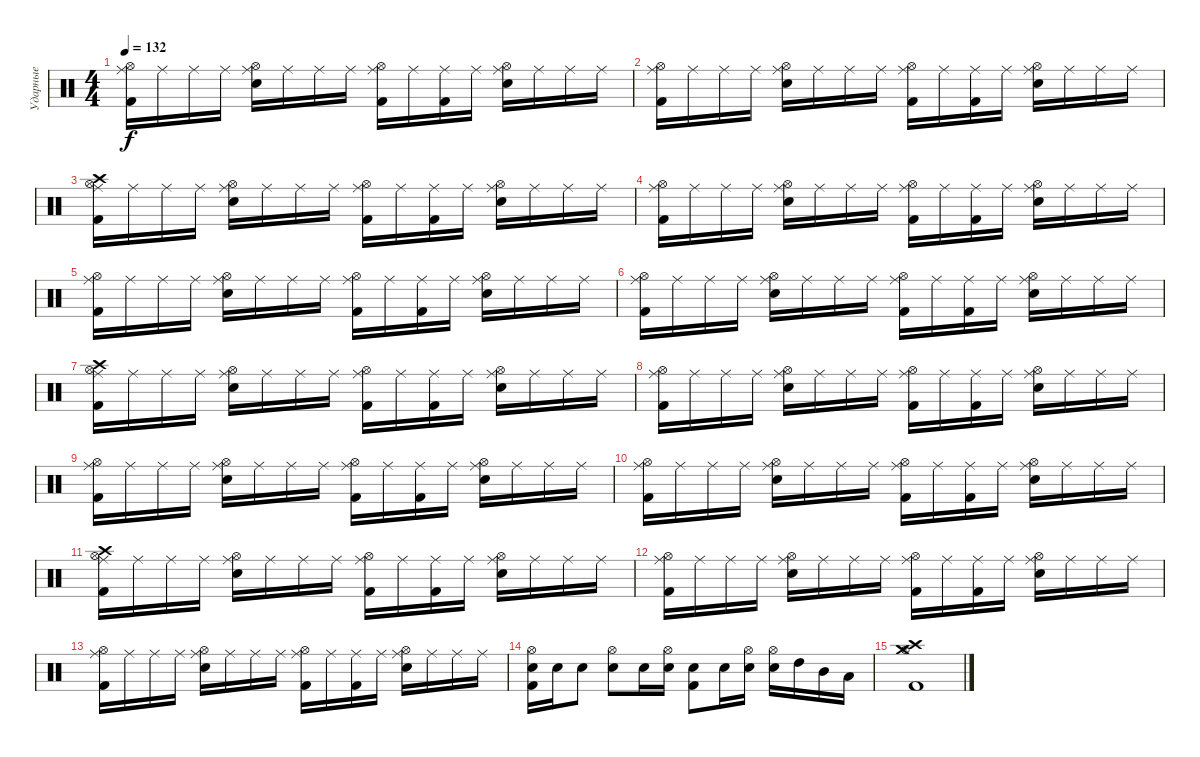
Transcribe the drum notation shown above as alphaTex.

\track ("Ударные" "Ударные") {instrument percussion}
\staff {score}
\articulation defaults
\ts (4 4)
\tempo 132
\clef neutral
\ks c
("Hi-Hat (open)" "Ride (middle)" "Kick (hit) 2").16{dy f} "Ride (middle)".16 "Ride (middle)".16 "Ride (middle)".16 ("Hi-Hat (open)" "Ride (middle)" "Snare (hit) 2").16 "Ride (middle)".16 "Ride (middle)".16 "Ride (middle)".16 ("Hi-Hat (open)" "Ride (middle)" "Kick (hit) 2").16 "Ride (middle)".16 ("Ride (middle)" "Kick (hit) 2").16 "Ride (middle)".16 ("Hi-Hat (open)" "Ride (middle)" "Snare (hit) 2").16 "Ride (middle)".16 "Ride (middle)".16 "Ride (middle)".16 |
("Hi-Hat (open)" "Ride (middle)" "Kick (hit) 2").16 "Ride (middle)".16 "Ride (middle)".16 "Ride (middle)".16 ("Hi-Hat (open)" "Ride (middle)" "Snare (hit) 2").16 "Ride (middle)".16 "Ride (middle)".16 "Ride (middle)".16 ("Hi-Hat (open)" "Ride (middle)" "Kick (hit) 2").16 "Ride (middle)".16 ("Ride (middle)" "Kick (hit) 2").16 "Ride (middle)".16 ("Hi-Hat (open)" "Ride (middle)" "Snare (hit) 2").16 "Ride (middle)".16 "Ride (middle)".16 "Ride (middle)".16 |
("Crash high (hit)" "Hi-Hat (open)" "Ride (middle)" "Kick (hit) 2").16 "Ride (middle)".16 "Ride (middle)".16 "Ride (middle)".16 ("Hi-Hat (open)" "Ride (middle)" "Snare (hit) 2").16 "Ride (middle)".16 "Ride (middle)".16 "Ride (middle)".16 ("Hi-Hat (open)" "Ride (middle)" "Kick (hit) 2").16 "Ride (middle)".16 ("Ride (middle)" "Kick (hit) 2").16 "Ride (middle)".16 ("Hi-Hat (open)" "Ride (middle)" "Snare (hit) 2").16 "Ride (middle)".16 "Ride (middle)".16 "Ride (middle)".16 |
("Hi-Hat (open)" "Ride (middle)" "Kick (hit) 2").16 "Ride (middle)".16 "Ride (middle)".16 "Ride (middle)".16 ("Hi-Hat (open)" "Ride (middle)" "Snare (hit) 2").16 "Ride (middle)".16 "Ride (middle)".16 "Ride (middle)".16 ("Hi-Hat (open)" "Ride (middle)" "Kick (hit) 2").16 "Ride (middle)".16 ("Ride (middle)" "Kick (hit) 2").16 "Ride (middle)".16 ("Hi-Hat (open)" "Ride (middle)" "Snare (hit) 2").16 "Ride (middle)".16 "Ride (middle)".16 "Ride (middle)".16 |
("Hi-Hat (open)" "Ride (middle)" "Kick (hit) 2").16 "Ride (middle)".16 "Ride (middle)".16 "Ride (middle)".16 ("Hi-Hat (open)" "Ride (middle)" "Snare (hit) 2").16 "Ride (middle)".16 "Ride (middle)".16 "Ride (middle)".16 ("Hi-Hat (open)" "Ride (middle)" "Kick (hit) 2").16 "Ride (middle)".16 ("Ride (middle)" "Kick (hit) 2").16 "Ride (middle)".16 ("Hi-Hat (open)" "Ride (middle)" "Snare (hit) 2").16 "Ride (middle)".16 "Ride (middle)".16 "Ride (middle)".16 |
("Hi-Hat (open)" "Ride (middle)" "Kick (hit) 2").16 "Ride (middle)".16 "Ride (middle)".16 "Ride (middle)".16 ("Hi-Hat (open)" "Ride (middle)" "Snare (hit) 2").16 "Ride (middle)".16 "Ride (middle)".16 "Ride (middle)".16 ("Hi-Hat (open)" "Ride (middle)" "Kick (hit) 2").16 "Ride (middle)".16 ("Ride (middle)" "Kick (hit) 2").16 "Ride (middle)".16 ("Hi-Hat (open)" "Ride (middle)" "Snare (hit) 2").16 "Ride (middle)".16 "Ride (middle)".16 "Ride (middle)".16 |
("Crash high (hit)" "Hi-Hat (open)" "Ride (middle)" "Kick (hit) 2").16 "Ride (middle)".16 "Ride (middle)".16 "Ride (middle)".16 ("Hi-Hat (open)" "Ride (middle)" "Snare (hit) 2").16 "Ride (middle)".16 "Ride (middle)".16 "Ride (middle)".16 ("Hi-Hat (open)" "Ride (middle)" "Kick (hit) 2").16 "Ride (middle)".16 ("Ride (middle)" "Kick (hit) 2").16 "Ride (middle)".16 ("Hi-Hat (open)" "Ride (middle)" "Snare (hit) 2").16 "Ride (middle)".16 "Ride (middle)".16 "Ride (middle)".16 |
("Hi-Hat (open)" "Ride (middle)" "Kick (hit) 2").16 "Ride (middle)".16 "Ride (middle)".16 "Ride (middle)".16 ("Hi-Hat (open)" "Ride (middle)" "Snare (hit) 2").16 "Ride (middle)".16 "Ride (middle)".16 "Ride (middle)".16 ("Hi-Hat (open)" "Ride (middle)" "Kick (hit) 2").16 "Ride (middle)".16 ("Ride (middle)" "Kick (hit) 2").16 "Ride (middle)".16 ("Hi-Hat (open)" "Ride (middle)" "Snare (hit) 2").16 "Ride (middle)".16 "Ride (middle)".16 "Ride (middle)".16 |
("Hi-Hat (open)" "Ride (middle)" "Kick (hit) 2").16 "Ride (middle)".16 "Ride (middle)".16 "Ride (middle)".16 ("Hi-Hat (open)" "Ride (middle)" "Snare (hit) 2").16 "Ride (middle)".16 "Ride (middle)".16 "Ride (middle)".16 ("Hi-Hat (open)" "Ride (middle)" "Kick (hit) 2").16 "Ride (middle)".16 ("Ride (middle)" "Kick (hit) 2").16 "Ride (middle)".16 ("Hi-Hat (open)" "Ride (middle)" "Snare (hit) 2").16 "Ride (middle)".16 "Ride (middle)".16 "Ride (middle)".16 |
("Hi-Hat (open)" "Ride (middle)" "Kick (hit) 2").16 "Ride (middle)".16 "Ride (middle)".16 "Ride (middle)".16 ("Hi-Hat (open)" "Ride (middle)" "Snare (hit) 2").16 "Ride (middle)".16 "Ride (middle)".16 "Ride (middle)".16 ("Hi-Hat (open)" "Ride (middle)" "Kick (hit) 2").16 "Ride (middle)".16 ("Ride (middle)" "Kick (hit) 2").16 "Ride (middle)".16 ("Hi-Hat (open)" "Ride (middle)" "Snare (hit) 2").16 "Ride (middle)".16 "Ride (middle)".16 "Ride (middle)".16 |
("Crash high (hit)" "Hi-Hat (open)" "Ride (middle)" "Kick (hit) 2").16 "Ride (middle)".16 "Ride (middle)".16 "Ride (middle)".16 ("Hi-Hat (open)" "Ride (middle)" "Snare (hit) 2").16 "Ride (middle)".16 "Ride (middle)".16 "Ride (middle)".16 ("Hi-Hat (open)" "Ride (middle)" "Kick (hit) 2").16 "Ride (middle)".16 ("Ride (middle)" "Kick (hit) 2").16 "Ride (middle)".16 ("Hi-Hat (open)" "Ride (middle)" "Snare (hit) 2").16 "Ride (middle)".16 "Ride (middle)".16 "Ride (middle)".16 |
("Hi-Hat (open)" "Ride (middle)" "Kick (hit) 2").16 "Ride (middle)".16 "Ride (middle)".16 "Ride (middle)".16 ("Hi-Hat (open)" "Ride (middle)" "Snare (hit) 2").16 "Ride (middle)".16 "Ride (middle)".16 "Ride (middle)".16 ("Hi-Hat (open)" "Ride (middle)" "Kick (hit) 2").16 "Ride (middle)".16 ("Ride (middle)" "Kick (hit) 2").16 "Ride (middle)".16 ("Hi-Hat (open)" "Ride (middle)" "Snare (hit) 2").16 "Ride (middle)".16 "Ride (middle)".16 "Ride (middle)".16 |
("Hi-Hat (open)" "Ride (middle)" "Kick (hit) 2").16 "Ride (middle)".16 "Ride (middle)".16 "Ride (middle)".16 ("Hi-Hat (open)" "Ride (middle)" "Snare (hit) 2").16 "Ride (middle)".16 "Ride (middle)".16 "Ride (middle)".16 ("Hi-Hat (open)" "Ride (middle)" "Kick (hit) 2").16 "Ride (middle)".16 ("Ride (middle)" "Kick (hit) 2").16 "Ride (middle)".16 ("Hi-Hat (open)" "Ride (middle)" "Snare (hit) 2").16 "Ride (middle)".16 "Ride (middle)".16 "Ride (middle)".16 |
("Hi-Hat (open)" "Snare (hit) 2" "Kick (hit) 2").16 "Snare (hit) 2".16 "Snare (hit) 2".8 ("Hi-Hat (open)" "Snare (hit) 2").8 "Snare (hit) 2".16 ("Hi-Hat (open)" "Snare (hit) 2").16 ("Snare (hit) 2" "Kick (hit) 2").8 "Snare (hit) 2".16 ("Hi-Hat (open)" "Snare (hit) 2").16 ("Hi-Hat (open)" "Snare (hit) 2").16 "High Tom (hit)".16 "Mid Tom (hit)".16 "Low Tom (hit)".16 |
("Crash medium (hit)" "Crash high (hit)" "Hi-Hat (open)" "Kick (hit) 2").1
